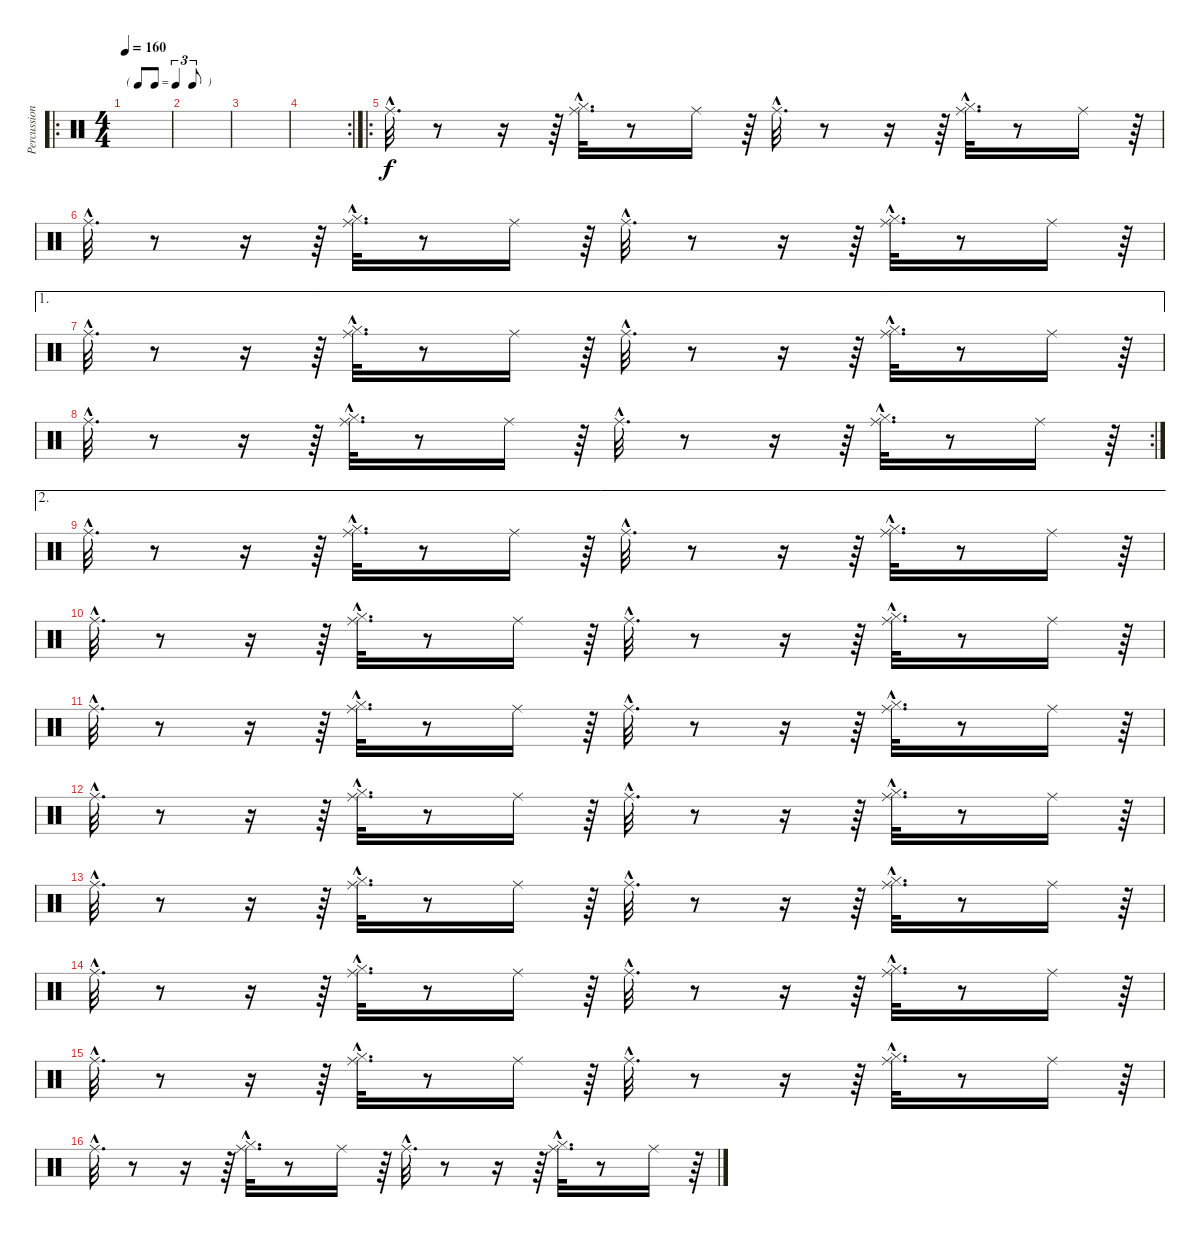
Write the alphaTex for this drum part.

\track ("Percussions" "Percussion") {instrument percussion}
\staff {score}
\articulation defaults
\ro
\ts (4 4)
\tf triplet8th
\tempo 160
\clef neutral
\ks c
|
|
|
\rc 2
|
\ro "Ride (middle)"{hac}.32{d}
r.8 r.16 r.64 ("Hi-Hat (closed)"{hac} "Ride (middle)"{hac}).32{d} r.8 "Ride (middle)".16 r.64 "Ride (middle)"{hac}.32{d} r.8 r.16 r.64 ("Hi-Hat (closed)"{hac} "Ride (middle)"{hac}).32{d} r.8 "Ride (middle)".16 r.64 |
"Ride (middle)"{hac}.32{d} r.8 r.16 r.64 ("Hi-Hat (closed)"{hac} "Ride (middle)"{hac}).32{d} r.8 "Ride (middle)".16 r.64 "Ride (middle)"{hac}.32{d} r.8 r.16 r.64 ("Hi-Hat (closed)"{hac} "Ride (middle)"{hac}).32{d} r.8 "Ride (middle)".16 r.64 |
\ae 1 "Ride (middle)"{hac}.32{d}
r.8 r.16 r.64 ("Hi-Hat (closed)"{hac} "Ride (middle)"{hac}).32{d} r.8 "Ride (middle)".16 r.64 "Ride (middle)"{hac}.32{d} r.8 r.16 r.64 ("Hi-Hat (closed)"{hac} "Ride (middle)"{hac}).32{d} r.8 "Ride (middle)".16 r.64 |
\rc 2 "Ride (middle)"{hac}.32{d}
r.8 r.16 r.64 ("Hi-Hat (closed)"{hac} "Ride (middle)"{hac}).32{d} r.8 "Ride (middle)".16 r.64 "Ride (middle)"{hac}.32{d} r.8 r.16 r.64 ("Hi-Hat (closed)"{hac} "Ride (middle)"{hac}).32{d} r.8 "Ride (middle)".16 r.64 |
\ae 2 "Ride (middle)"{hac}.32{d}
r.8 r.16 r.64 ("Hi-Hat (closed)"{hac} "Ride (middle)"{hac}).32{d} r.8 "Ride (middle)".16 r.64 "Ride (middle)"{hac}.32{d} r.8 r.16 r.64 ("Hi-Hat (closed)"{hac} "Ride (middle)"{hac}).32{d} r.8 "Ride (middle)".16 r.64 |
"Ride (middle)"{hac}.32{d} r.8 r.16 r.64 ("Hi-Hat (closed)"{hac} "Ride (middle)"{hac}).32{d} r.8 "Ride (middle)".16 r.64 "Ride (middle)"{hac}.32{d} r.8 r.16 r.64 ("Hi-Hat (closed)"{hac} "Ride (middle)"{hac}).32{d} r.8 "Ride (middle)".16 r.64 |
"Ride (middle)"{hac}.32{d} r.8 r.16 r.64 ("Hi-Hat (closed)"{hac} "Ride (middle)"{hac}).32{d} r.8 "Ride (middle)".16 r.64 "Ride (middle)"{hac}.32{d} r.8 r.16 r.64 ("Hi-Hat (closed)"{hac} "Ride (middle)"{hac}).32{d} r.8 "Ride (middle)".16 r.64 |
"Ride (middle)"{hac}.32{d} r.8 r.16 r.64 ("Hi-Hat (closed)"{hac} "Ride (middle)"{hac}).32{d} r.8 "Ride (middle)".16 r.64 "Ride (middle)"{hac}.32{d} r.8 r.16 r.64 ("Hi-Hat (closed)"{hac} "Ride (middle)"{hac}).32{d} r.8 "Ride (middle)".16 r.64 |
"Ride (middle)"{hac}.32{d} r.8 r.16 r.64 ("Hi-Hat (closed)"{hac} "Ride (middle)"{hac}).32{d} r.8 "Ride (middle)".16 r.64 "Ride (middle)"{hac}.32{d} r.8 r.16 r.64 ("Hi-Hat (closed)"{hac} "Ride (middle)"{hac}).32{d} r.8 "Ride (middle)".16 r.64 |
"Ride (middle)"{hac}.32{d} r.8 r.16 r.64 ("Hi-Hat (closed)"{hac} "Ride (middle)"{hac}).32{d} r.8 "Ride (middle)".16 r.64 "Ride (middle)"{hac}.32{d} r.8 r.16 r.64 ("Hi-Hat (closed)"{hac} "Ride (middle)"{hac}).32{d} r.8 "Ride (middle)".16 r.64 |
"Ride (middle)"{hac}.32{d} r.8 r.16 r.64 ("Hi-Hat (closed)"{hac} "Ride (middle)"{hac}).32{d} r.8 "Ride (middle)".16 r.64 "Ride (middle)"{hac}.32{d} r.8 r.16 r.64 ("Hi-Hat (closed)"{hac} "Ride (middle)"{hac}).32{d} r.8 "Ride (middle)".16 r.64 |
"Ride (middle)"{hac}.32{d} r.8 r.16 r.64 ("Hi-Hat (closed)"{hac} "Ride (middle)"{hac}).32{d} r.8 "Ride (middle)".16 r.64 "Ride (middle)"{hac}.32{d} r.8 r.16 r.64 ("Hi-Hat (closed)"{hac} "Ride (middle)"{hac}).32{d} r.8 "Ride (middle)".16 r.64
